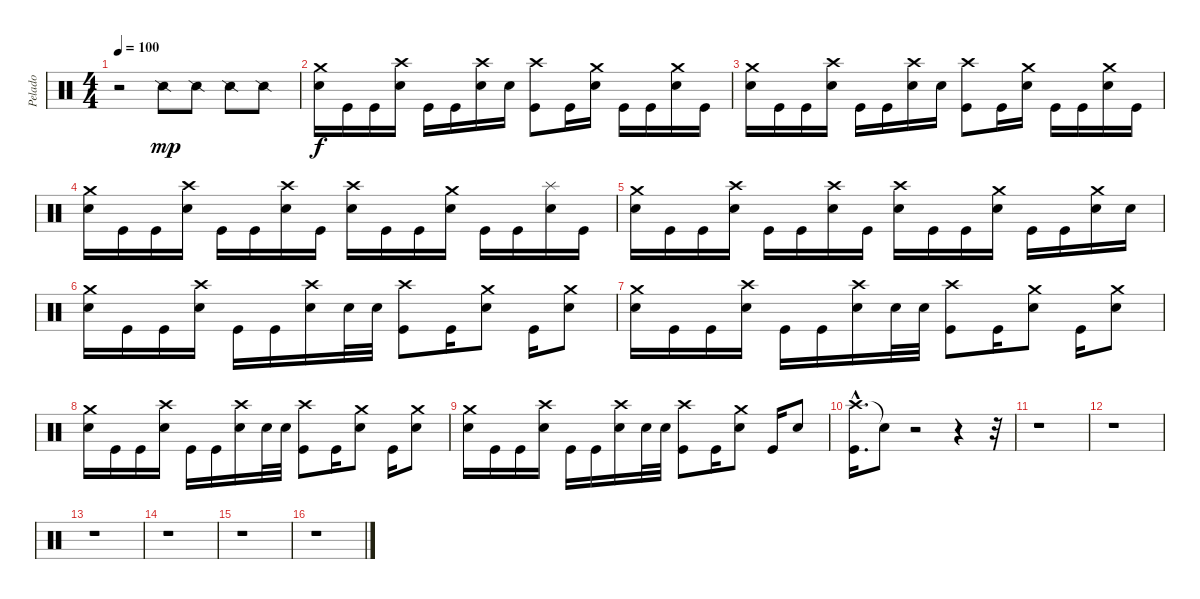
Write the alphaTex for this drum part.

\track ("Pelado" "Pelado") {instrument percussion}
\staff {score}
\articulation defaults
\ts (4 4)
\tempo 100
\clef neutral
\ks c
r.2{dy mp} "Snare (side stick) 2".8 "Snare (side stick) 2".8 "Snare (side stick) 2".8 "Snare (side stick) 2".8 |
("Crash medium (hit)" "Electric Snare (hit)").16{dy f} "Kick (hit)".16 "Kick (hit)".16 ("Crash high (hit)" "Electric Snare (hit)").16 "Kick (hit)".16 "Kick (hit)".16 ("Crash high (hit)" "Electric Snare (hit)").16 "Electric Snare (hit)".16 ("Crash high (hit)" "Kick (hit)").8 "Kick (hit)".16 ("Crash medium (hit)" "Electric Snare (hit)").16 "Kick (hit)".16 "Kick (hit)".16 ("Crash medium (hit)" "Electric Snare (hit)").16 "Kick (hit)".16 |
("Crash medium (hit)" "Electric Snare (hit)").16 "Kick (hit)".16 "Kick (hit)".16 ("Crash high (hit)" "Electric Snare (hit)").16 "Kick (hit)".16 "Kick (hit)".16 ("Crash high (hit)" "Electric Snare (hit)").16 "Electric Snare (hit)".16 ("Crash high (hit)" "Kick (hit)").8 "Kick (hit)".16 ("Crash medium (hit)" "Electric Snare (hit)").16 "Kick (hit)".16 "Kick (hit)".16 ("Crash medium (hit)" "Electric Snare (hit)").16 "Kick (hit)".16 |
("Crash medium (hit)" "Electric Snare (hit)").16 "Kick (hit)".16 "Kick (hit)".16 ("Crash high (hit)" "Electric Snare (hit)").16 "Kick (hit)".16 "Kick (hit)".16 ("Crash high (hit)" "Electric Snare (hit)").16 "Kick (hit)".16 ("Crash high (hit)" "Electric Snare (hit)").16 "Kick (hit)".16 "Kick (hit)".16 ("Crash medium (hit)" "Electric Snare (hit)").16 "Kick (hit)".16 "Kick (hit)".16 ("Splash (hit)" "Electric Snare (hit)").16 "Kick (hit)".16 |
("Crash medium (hit)" "Electric Snare (hit)").16 "Kick (hit)".16 "Kick (hit)".16 ("Crash high (hit)" "Electric Snare (hit)").16 "Kick (hit)".16 "Kick (hit)".16 ("Crash high (hit)" "Electric Snare (hit)").16 "Kick (hit)".16 ("Crash high (hit)" "Electric Snare (hit)").16 "Kick (hit)".16 "Kick (hit)".16 ("Crash medium (hit)" "Electric Snare (hit)").16 "Kick (hit)".16 "Kick (hit)".16 ("Crash medium (hit)" "Electric Snare (hit)").16 "Electric Snare (hit)".16 |
("Crash medium (hit)" "Electric Snare (hit)").16 "Kick (hit)".16 "Kick (hit)".16 ("Crash high (hit)" "Electric Snare (hit)").16 "Kick (hit)".16 "Kick (hit)".16 ("Crash high (hit)" "Electric Snare (hit)").16 "Electric Snare (hit)".32 "Electric Snare (hit)".32 ("Crash high (hit)" "Kick (hit)").8 "Kick (hit)".16 ("Crash medium (hit)" "Electric Snare (hit)").8 "Kick (hit)".16 ("Crash medium (hit)" "Electric Snare (hit)").8 |
("Crash medium (hit)" "Electric Snare (hit)").16 "Kick (hit)".16 "Kick (hit)".16 ("Crash high (hit)" "Electric Snare (hit)").16 "Kick (hit)".16 "Kick (hit)".16 ("Crash high (hit)" "Electric Snare (hit)").16 "Electric Snare (hit)".32 "Electric Snare (hit)".32 ("Crash high (hit)" "Kick (hit)").8 "Kick (hit)".16 ("Crash medium (hit)" "Electric Snare (hit)").8 "Kick (hit)".16 ("Crash medium (hit)" "Electric Snare (hit)").8 |
("Crash medium (hit)" "Electric Snare (hit)").16 "Kick (hit)".16 "Kick (hit)".16 ("Crash high (hit)" "Electric Snare (hit)").16 "Kick (hit)".16 "Kick (hit)".16 ("Crash high (hit)" "Electric Snare (hit)").16 "Electric Snare (hit)".32 "Electric Snare (hit)".32 ("Crash high (hit)" "Kick (hit)").8 "Kick (hit)".16 ("Crash medium (hit)" "Electric Snare (hit)").8 "Kick (hit)".16 ("Crash medium (hit)" "Electric Snare (hit)").8 |
("Crash medium (hit)" "Electric Snare (hit)").16 "Kick (hit)".16 "Kick (hit)".16 ("Crash high (hit)" "Electric Snare (hit)").16 "Kick (hit)".16 "Kick (hit)".16 ("Crash high (hit)" "Electric Snare (hit)").16 "Electric Snare (hit)".32 "Electric Snare (hit)".32 ("Crash high (hit)" "Kick (hit)").8 "Kick (hit)".16 ("Crash medium (hit)" "Electric Snare (hit)").8 "Kick (hit)".16 "Electric Snare (hit)".8 |
("Crash high (hit)"{hac} "Kick (hit)"{hac}).16{d} "Snare (hit)"{t}.8{volume 0} r.2 r.4 r.32 |
r.1 |
r.1 |
r.1 |
r.1 |
r.1 |
r.1
